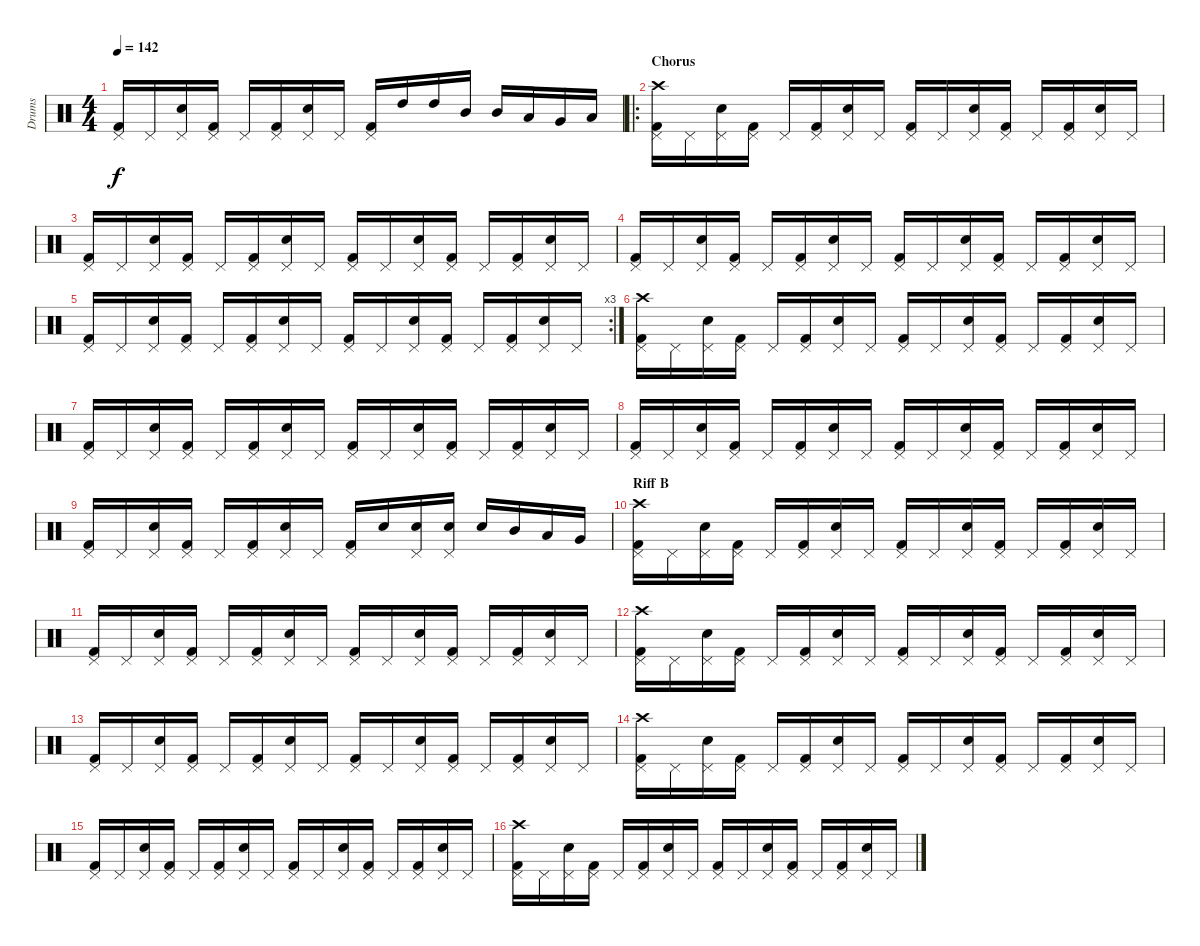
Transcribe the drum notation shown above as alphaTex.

\track ("Drums" "Drums") {instrument percussion}
\staff {score}
\articulation defaults
\ts (4 4)
\tempo 142
\clef neutral
\ks c
("Kick (hit) 2" "Pedal Hi-Hat (hit)").16{dy f} "Pedal Hi-Hat (hit)".16 ("Snare (hit) 2" "Pedal Hi-Hat (hit)").16 ("Kick (hit) 2" "Pedal Hi-Hat (hit)").16 "Pedal Hi-Hat (hit)".16 ("Kick (hit) 2" "Pedal Hi-Hat (hit)").16 ("Snare (hit) 2" "Pedal Hi-Hat (hit)").16 "Pedal Hi-Hat (hit)".16 ("Kick (hit) 2" "Pedal Hi-Hat (hit)").16 "High Tom (hit)".16 "High Tom (hit)".16 "Mid Tom (hit)".16 "Mid Tom (hit)".16 "Low Tom (hit)".16 "Very Low Tom (hit)".16 "Low Floor Tom (hit)".16 |
\ro
\section ("" "Chorus")
("Kick (hit) 2" "Pedal Hi-Hat (hit)" "Crash high (hit)").16 "Pedal Hi-Hat (hit)".16 ("Snare (hit) 2" "Pedal Hi-Hat (hit)").16 ("Kick (hit) 2" "Pedal Hi-Hat (hit)").16 "Pedal Hi-Hat (hit)".16 ("Kick (hit) 2" "Pedal Hi-Hat (hit)").16 ("Snare (hit) 2" "Pedal Hi-Hat (hit)").16 "Pedal Hi-Hat (hit)".16 ("Kick (hit) 2" "Pedal Hi-Hat (hit)").16 "Pedal Hi-Hat (hit)".16 ("Snare (hit) 2" "Pedal Hi-Hat (hit)").16 ("Kick (hit) 2" "Pedal Hi-Hat (hit)").16 "Pedal Hi-Hat (hit)".16 ("Kick (hit) 2" "Pedal Hi-Hat (hit)").16 ("Snare (hit) 2" "Pedal Hi-Hat (hit)").16 "Pedal Hi-Hat (hit)".16 |
("Kick (hit) 2" "Pedal Hi-Hat (hit)").16 "Pedal Hi-Hat (hit)".16 ("Snare (hit) 2" "Pedal Hi-Hat (hit)").16 ("Kick (hit) 2" "Pedal Hi-Hat (hit)").16 "Pedal Hi-Hat (hit)".16 ("Kick (hit) 2" "Pedal Hi-Hat (hit)").16 ("Snare (hit) 2" "Pedal Hi-Hat (hit)").16 "Pedal Hi-Hat (hit)".16 ("Kick (hit) 2" "Pedal Hi-Hat (hit)").16 "Pedal Hi-Hat (hit)".16 ("Snare (hit) 2" "Pedal Hi-Hat (hit)").16 ("Kick (hit) 2" "Pedal Hi-Hat (hit)").16 "Pedal Hi-Hat (hit)".16 ("Kick (hit) 2" "Pedal Hi-Hat (hit)").16 ("Snare (hit) 2" "Pedal Hi-Hat (hit)").16 "Pedal Hi-Hat (hit)".16 |
("Kick (hit) 2" "Pedal Hi-Hat (hit)").16 "Pedal Hi-Hat (hit)".16 ("Snare (hit) 2" "Pedal Hi-Hat (hit)").16 ("Kick (hit) 2" "Pedal Hi-Hat (hit)").16 "Pedal Hi-Hat (hit)".16 ("Kick (hit) 2" "Pedal Hi-Hat (hit)").16 ("Snare (hit) 2" "Pedal Hi-Hat (hit)").16 "Pedal Hi-Hat (hit)".16 ("Kick (hit) 2" "Pedal Hi-Hat (hit)").16 "Pedal Hi-Hat (hit)".16 ("Snare (hit) 2" "Pedal Hi-Hat (hit)").16 ("Kick (hit) 2" "Pedal Hi-Hat (hit)").16 "Pedal Hi-Hat (hit)".16 ("Kick (hit) 2" "Pedal Hi-Hat (hit)").16 ("Snare (hit) 2" "Pedal Hi-Hat (hit)").16 "Pedal Hi-Hat (hit)".16 |
\rc 3
("Kick (hit) 2" "Pedal Hi-Hat (hit)").16 "Pedal Hi-Hat (hit)".16 ("Snare (hit) 2" "Pedal Hi-Hat (hit)").16 ("Kick (hit) 2" "Pedal Hi-Hat (hit)").16 "Pedal Hi-Hat (hit)".16 ("Kick (hit) 2" "Pedal Hi-Hat (hit)").16 ("Snare (hit) 2" "Pedal Hi-Hat (hit)").16 "Pedal Hi-Hat (hit)".16 ("Kick (hit) 2" "Pedal Hi-Hat (hit)").16 "Pedal Hi-Hat (hit)".16 ("Snare (hit) 2" "Pedal Hi-Hat (hit)").16 ("Kick (hit) 2" "Pedal Hi-Hat (hit)").16 "Pedal Hi-Hat (hit)".16 ("Kick (hit) 2" "Pedal Hi-Hat (hit)").16 ("Snare (hit) 2" "Pedal Hi-Hat (hit)").16 "Pedal Hi-Hat (hit)".16 |
("Kick (hit) 2" "Pedal Hi-Hat (hit)" "Crash high (hit)").16 "Pedal Hi-Hat (hit)".16 ("Snare (hit) 2" "Pedal Hi-Hat (hit)").16 ("Kick (hit) 2" "Pedal Hi-Hat (hit)").16 "Pedal Hi-Hat (hit)".16 ("Kick (hit) 2" "Pedal Hi-Hat (hit)").16 ("Snare (hit) 2" "Pedal Hi-Hat (hit)").16 "Pedal Hi-Hat (hit)".16 ("Kick (hit) 2" "Pedal Hi-Hat (hit)").16 "Pedal Hi-Hat (hit)".16 ("Snare (hit) 2" "Pedal Hi-Hat (hit)").16 ("Kick (hit) 2" "Pedal Hi-Hat (hit)").16 "Pedal Hi-Hat (hit)".16 ("Kick (hit) 2" "Pedal Hi-Hat (hit)").16 ("Snare (hit) 2" "Pedal Hi-Hat (hit)").16 "Pedal Hi-Hat (hit)".16 |
("Kick (hit) 2" "Pedal Hi-Hat (hit)").16 "Pedal Hi-Hat (hit)".16 ("Snare (hit) 2" "Pedal Hi-Hat (hit)").16 ("Kick (hit) 2" "Pedal Hi-Hat (hit)").16 "Pedal Hi-Hat (hit)".16 ("Kick (hit) 2" "Pedal Hi-Hat (hit)").16 ("Snare (hit) 2" "Pedal Hi-Hat (hit)").16 "Pedal Hi-Hat (hit)".16 ("Kick (hit) 2" "Pedal Hi-Hat (hit)").16 "Pedal Hi-Hat (hit)".16 ("Snare (hit) 2" "Pedal Hi-Hat (hit)").16 ("Kick (hit) 2" "Pedal Hi-Hat (hit)").16 "Pedal Hi-Hat (hit)".16 ("Kick (hit) 2" "Pedal Hi-Hat (hit)").16 ("Snare (hit) 2" "Pedal Hi-Hat (hit)").16 "Pedal Hi-Hat (hit)".16 |
("Kick (hit) 2" "Pedal Hi-Hat (hit)").16 "Pedal Hi-Hat (hit)".16 ("Snare (hit) 2" "Pedal Hi-Hat (hit)").16 ("Kick (hit) 2" "Pedal Hi-Hat (hit)").16 "Pedal Hi-Hat (hit)".16 ("Kick (hit) 2" "Pedal Hi-Hat (hit)").16 ("Snare (hit) 2" "Pedal Hi-Hat (hit)").16 "Pedal Hi-Hat (hit)".16 ("Kick (hit) 2" "Pedal Hi-Hat (hit)").16 "Pedal Hi-Hat (hit)".16 ("Snare (hit) 2" "Pedal Hi-Hat (hit)").16 ("Kick (hit) 2" "Pedal Hi-Hat (hit)").16 "Pedal Hi-Hat (hit)".16 ("Kick (hit) 2" "Pedal Hi-Hat (hit)").16 ("Snare (hit) 2" "Pedal Hi-Hat (hit)").16 "Pedal Hi-Hat (hit)".16 |
("Kick (hit) 2" "Pedal Hi-Hat (hit)").16 "Pedal Hi-Hat (hit)".16 ("Snare (hit) 2" "Pedal Hi-Hat (hit)").16 ("Kick (hit) 2" "Pedal Hi-Hat (hit)").16 "Pedal Hi-Hat (hit)".16 ("Kick (hit) 2" "Pedal Hi-Hat (hit)").16 ("Snare (hit) 2" "Pedal Hi-Hat (hit)").16 "Pedal Hi-Hat (hit)".16 ("Kick (hit) 2" "Pedal Hi-Hat (hit)").16 "Snare (hit) 2".16 ("Snare (hit) 2" "Pedal Hi-Hat (hit)").16 ("Snare (hit) 2" "Pedal Hi-Hat (hit)").16 "Snare (hit) 2".16 "Mid Tom (hit)".16 "Low Tom (hit)".16 "Very Low Tom (hit)".16 |
\section ("" "Riff B")
("Kick (hit) 2" "Pedal Hi-Hat (hit)" "Crash high (hit)").16 "Pedal Hi-Hat (hit)".16 ("Snare (hit) 2" "Pedal Hi-Hat (hit)").16 ("Kick (hit) 2" "Pedal Hi-Hat (hit)").16 "Pedal Hi-Hat (hit)".16 ("Kick (hit) 2" "Pedal Hi-Hat (hit)").16 ("Snare (hit) 2" "Pedal Hi-Hat (hit)").16 "Pedal Hi-Hat (hit)".16 ("Kick (hit) 2" "Pedal Hi-Hat (hit)").16 "Pedal Hi-Hat (hit)".16 ("Snare (hit) 2" "Pedal Hi-Hat (hit)").16 ("Kick (hit) 2" "Pedal Hi-Hat (hit)").16 "Pedal Hi-Hat (hit)".16 ("Kick (hit) 2" "Pedal Hi-Hat (hit)").16 ("Snare (hit) 2" "Pedal Hi-Hat (hit)").16 "Pedal Hi-Hat (hit)".16 |
("Kick (hit) 2" "Pedal Hi-Hat (hit)").16 "Pedal Hi-Hat (hit)".16 ("Snare (hit) 2" "Pedal Hi-Hat (hit)").16 ("Kick (hit) 2" "Pedal Hi-Hat (hit)").16 "Pedal Hi-Hat (hit)".16 ("Kick (hit) 2" "Pedal Hi-Hat (hit)").16 ("Snare (hit) 2" "Pedal Hi-Hat (hit)").16 "Pedal Hi-Hat (hit)".16 ("Kick (hit) 2" "Pedal Hi-Hat (hit)").16 "Pedal Hi-Hat (hit)".16 ("Snare (hit) 2" "Pedal Hi-Hat (hit)").16 ("Kick (hit) 2" "Pedal Hi-Hat (hit)").16 "Pedal Hi-Hat (hit)".16 ("Kick (hit) 2" "Pedal Hi-Hat (hit)").16 ("Snare (hit) 2" "Pedal Hi-Hat (hit)").16 "Pedal Hi-Hat (hit)".16 |
("Kick (hit) 2" "Pedal Hi-Hat (hit)" "Crash high (hit)").16 "Pedal Hi-Hat (hit)".16 ("Snare (hit) 2" "Pedal Hi-Hat (hit)").16 ("Kick (hit) 2" "Pedal Hi-Hat (hit)").16 "Pedal Hi-Hat (hit)".16 ("Kick (hit) 2" "Pedal Hi-Hat (hit)").16 ("Snare (hit) 2" "Pedal Hi-Hat (hit)").16 "Pedal Hi-Hat (hit)".16 ("Kick (hit) 2" "Pedal Hi-Hat (hit)").16 "Pedal Hi-Hat (hit)".16 ("Snare (hit) 2" "Pedal Hi-Hat (hit)").16 ("Kick (hit) 2" "Pedal Hi-Hat (hit)").16 "Pedal Hi-Hat (hit)".16 ("Kick (hit) 2" "Pedal Hi-Hat (hit)").16 ("Snare (hit) 2" "Pedal Hi-Hat (hit)").16 "Pedal Hi-Hat (hit)".16 |
("Kick (hit) 2" "Pedal Hi-Hat (hit)").16 "Pedal Hi-Hat (hit)".16 ("Snare (hit) 2" "Pedal Hi-Hat (hit)").16 ("Kick (hit) 2" "Pedal Hi-Hat (hit)").16 "Pedal Hi-Hat (hit)".16 ("Kick (hit) 2" "Pedal Hi-Hat (hit)").16 ("Snare (hit) 2" "Pedal Hi-Hat (hit)").16 "Pedal Hi-Hat (hit)".16 ("Kick (hit) 2" "Pedal Hi-Hat (hit)").16 "Pedal Hi-Hat (hit)".16 ("Snare (hit) 2" "Pedal Hi-Hat (hit)").16 ("Kick (hit) 2" "Pedal Hi-Hat (hit)").16 "Pedal Hi-Hat (hit)".16 ("Kick (hit) 2" "Pedal Hi-Hat (hit)").16 ("Snare (hit) 2" "Pedal Hi-Hat (hit)").16 "Pedal Hi-Hat (hit)".16 |
("Kick (hit) 2" "Pedal Hi-Hat (hit)" "Crash high (hit)").16 "Pedal Hi-Hat (hit)".16 ("Snare (hit) 2" "Pedal Hi-Hat (hit)").16 ("Kick (hit) 2" "Pedal Hi-Hat (hit)").16 "Pedal Hi-Hat (hit)".16 ("Kick (hit) 2" "Pedal Hi-Hat (hit)").16 ("Snare (hit) 2" "Pedal Hi-Hat (hit)").16 "Pedal Hi-Hat (hit)".16 ("Kick (hit) 2" "Pedal Hi-Hat (hit)").16 "Pedal Hi-Hat (hit)".16 ("Snare (hit) 2" "Pedal Hi-Hat (hit)").16 ("Kick (hit) 2" "Pedal Hi-Hat (hit)").16 "Pedal Hi-Hat (hit)".16 ("Kick (hit) 2" "Pedal Hi-Hat (hit)").16 ("Snare (hit) 2" "Pedal Hi-Hat (hit)").16 "Pedal Hi-Hat (hit)".16 |
("Kick (hit) 2" "Pedal Hi-Hat (hit)").16 "Pedal Hi-Hat (hit)".16 ("Snare (hit) 2" "Pedal Hi-Hat (hit)").16 ("Kick (hit) 2" "Pedal Hi-Hat (hit)").16 "Pedal Hi-Hat (hit)".16 ("Kick (hit) 2" "Pedal Hi-Hat (hit)").16 ("Snare (hit) 2" "Pedal Hi-Hat (hit)").16 "Pedal Hi-Hat (hit)".16 ("Kick (hit) 2" "Pedal Hi-Hat (hit)").16 "Pedal Hi-Hat (hit)".16 ("Snare (hit) 2" "Pedal Hi-Hat (hit)").16 ("Kick (hit) 2" "Pedal Hi-Hat (hit)").16 "Pedal Hi-Hat (hit)".16 ("Kick (hit) 2" "Pedal Hi-Hat (hit)").16 ("Snare (hit) 2" "Pedal Hi-Hat (hit)").16 "Pedal Hi-Hat (hit)".16 |
("Kick (hit) 2" "Pedal Hi-Hat (hit)" "Crash high (hit)").16 "Pedal Hi-Hat (hit)".16 ("Snare (hit) 2" "Pedal Hi-Hat (hit)").16 ("Kick (hit) 2" "Pedal Hi-Hat (hit)").16 "Pedal Hi-Hat (hit)".16 ("Kick (hit) 2" "Pedal Hi-Hat (hit)").16 ("Snare (hit) 2" "Pedal Hi-Hat (hit)").16 "Pedal Hi-Hat (hit)".16 ("Kick (hit) 2" "Pedal Hi-Hat (hit)").16 "Pedal Hi-Hat (hit)".16 ("Snare (hit) 2" "Pedal Hi-Hat (hit)").16 ("Kick (hit) 2" "Pedal Hi-Hat (hit)").16 "Pedal Hi-Hat (hit)".16 ("Kick (hit) 2" "Pedal Hi-Hat (hit)").16 ("Snare (hit) 2" "Pedal Hi-Hat (hit)").16 "Pedal Hi-Hat (hit)".16
